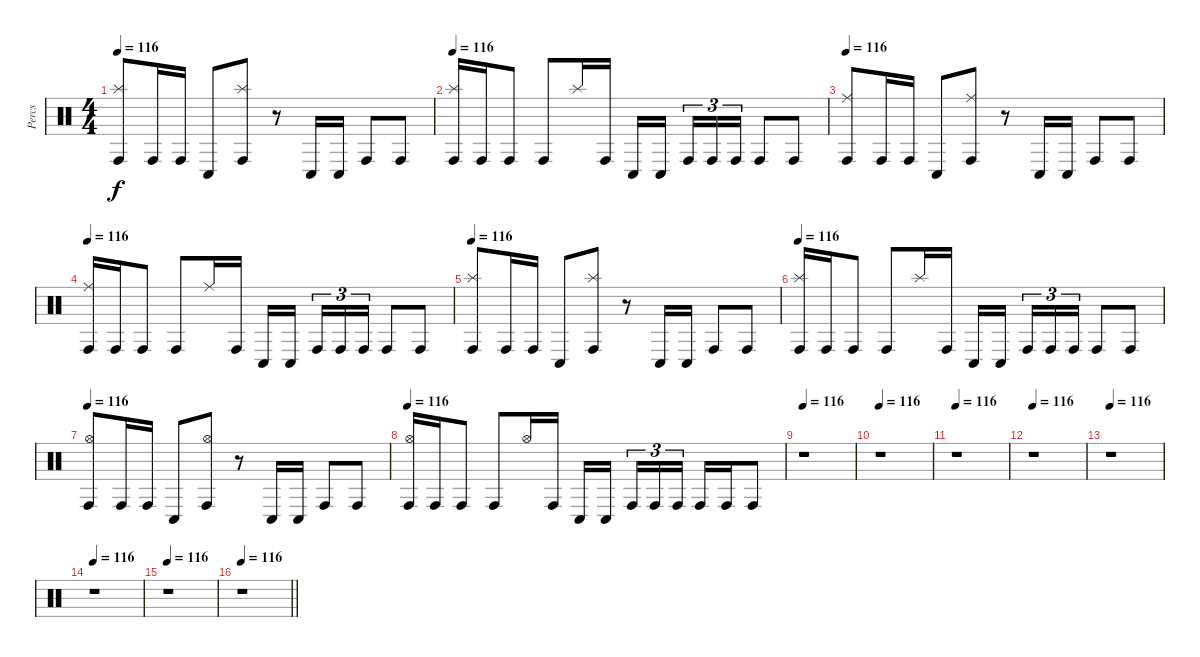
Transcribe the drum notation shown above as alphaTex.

\track ("Percs" "Percs") {instrument percussion}
\staff {score}
\articulation defaults
\ts (4 4)
\tempo 116
\clef neutral
\ks c
("Splash (hit)" "Conga high (hit)").8{dy f volume 13} "Conga high (hit)".16 "Conga high (hit)".16 "Conga low (hit)".8 ("Splash (hit)" "Conga high (hit)").8 r.8 "Conga low (hit)".16 "Conga low (hit)".16 "Conga high (hit)".8 "Conga high (hit)".8 |
\tempo 116
("Splash (hit)" "Conga high (hit)").16 "Conga high (hit)".16 "Conga high (hit)".8 "Conga high (hit)".8 "Splash (hit)".16 "Conga high (hit)".16 "Conga low (hit)".16 "Conga low (hit)".16 "Conga high (hit)".16{tu (3 2)} "Conga high (hit)".16{tu (3 2)} "Conga high (hit)".16{tu (3 2)} "Conga high (hit)".8 "Conga high (hit)".8 |
\tempo 116
("Ride (middle)" "Conga high (hit)").8 "Conga high (hit)".16 "Conga high (hit)".16 "Conga low (hit)".8 ("Ride (middle)" "Conga high (hit)").8 r.8 "Conga low (hit)".16 "Conga low (hit)".16 "Conga high (hit)".8 "Conga high (hit)".8 |
\tempo 116
("Ride (middle)" "Conga high (hit)").16 "Conga high (hit)".16 "Conga high (hit)".8 "Conga high (hit)".8 "Ride (middle)".16 "Conga high (hit)".16 "Conga low (hit)".16 "Conga low (hit)".16 "Conga high (hit)".16{tu (3 2)} "Conga high (hit)".16{tu (3 2)} "Conga high (hit)".16{tu (3 2)} "Conga high (hit)".8 "Conga high (hit)".8 |
\tempo 116
("Splash (hit)" "Conga high (hit)").8 "Conga high (hit)".16 "Conga high (hit)".16 "Conga low (hit)".8 ("Splash (hit)" "Conga high (hit)").8 r.8 "Conga low (hit)".16 "Conga low (hit)".16 "Conga high (hit)".8 "Conga high (hit)".8 |
\tempo 116
("Splash (hit)" "Conga high (hit)").16 "Conga high (hit)".16 "Conga high (hit)".8 "Conga high (hit)".8 "Splash (hit)".16 "Conga high (hit)".16 "Conga low (hit)".16 "Conga low (hit)".16 "Conga high (hit)".16{tu (3 2)} "Conga high (hit)".16{tu (3 2)} "Conga high (hit)".16{tu (3 2)} "Conga high (hit)".8 "Conga high (hit)".8 |
\tempo 116
("Hi-Hat (open)" "Conga high (hit)").8 "Conga high (hit)".16 "Conga high (hit)".16 "Conga low (hit)".8 ("Hi-Hat (open)" "Conga high (hit)").8 r.8 "Conga low (hit)".16 "Conga low (hit)".16 "Conga high (hit)".8 "Conga high (hit)".8 |
\tempo 116
("Hi-Hat (open)" "Conga high (hit)").16 "Conga high (hit)".16 "Conga high (hit)".8 "Conga high (hit)".8 "Hi-Hat (open)".16 "Conga high (hit)".16 "Conga low (hit)".16 "Conga low (hit)".16 "Conga high (hit)".16{tu (3 2)} "Conga high (hit)".16{tu (3 2)} "Conga high (hit)".16{tu (3 2)} "Conga high (hit)".16 "Conga high (hit)".16 "Conga high (hit)".8 |
\tempo 116
r.1 |
\tempo 116
r.1 |
\tempo 116
r.1 |
\tempo 116
r.1 |
\tempo 116
r.1 |
\tempo 116
r.1 |
\tempo 116
r.1 |
\tempo 116
\barLineRight lightlight
r.1
